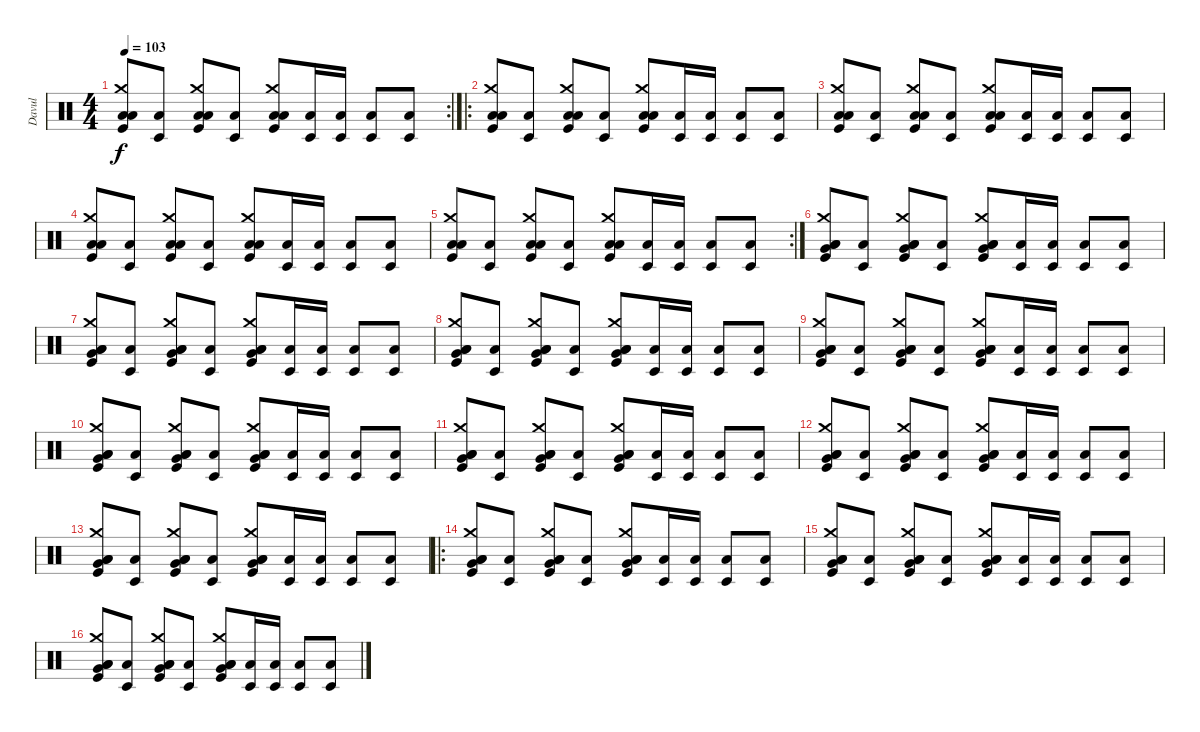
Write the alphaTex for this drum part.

\track ("Davul" "Davul") {instrument percussion}
\staff {score}
\articulation defaults
\rc 2
\ts (4 4)
\tempo 103
\clef neutral
\ks c
("Kick (hit)" "Low Tom (hit)" "Low Floor Tom (hit)" "Crash medium (hit)").8{dy f} ("Timbale low (hit)" "Low Floor Tom (hit)").8 ("Kick (hit)" "Low Tom (hit)" "Low Floor Tom (hit)" "Crash medium (hit)").8 ("Timbale low (hit)" "Low Floor Tom (hit)").8 ("Kick (hit)" "Low Tom (hit)" "Low Floor Tom (hit)" "Crash medium (hit)").8 ("Timbale low (hit)" "Low Floor Tom (hit)").16 ("Timbale low (hit)" "Low Floor Tom (hit)").16 ("Timbale low (hit)" "Low Floor Tom (hit)").8 ("Timbale low (hit)" "Low Floor Tom (hit)").8 |
\ro
("Kick (hit)" "Low Tom (hit)" "Low Floor Tom (hit)" "Crash medium (hit)").8 ("Timbale low (hit)" "Low Floor Tom (hit)").8 ("Kick (hit)" "Low Tom (hit)" "Low Floor Tom (hit)" "Crash medium (hit)").8 ("Timbale low (hit)" "Low Floor Tom (hit)").8 ("Kick (hit)" "Low Tom (hit)" "Low Floor Tom (hit)" "Crash medium (hit)").8 ("Timbale low (hit)" "Low Floor Tom (hit)").16 ("Timbale low (hit)" "Low Floor Tom (hit)").16 ("Timbale low (hit)" "Low Floor Tom (hit)").8 ("Timbale low (hit)" "Low Floor Tom (hit)").8 |
("Kick (hit)" "Low Tom (hit)" "Low Floor Tom (hit)" "Crash medium (hit)").8 ("Timbale low (hit)" "Low Floor Tom (hit)").8 ("Kick (hit)" "Low Tom (hit)" "Low Floor Tom (hit)" "Crash medium (hit)").8 ("Timbale low (hit)" "Low Floor Tom (hit)").8 ("Kick (hit)" "Low Tom (hit)" "Low Floor Tom (hit)" "Crash medium (hit)").8 ("Timbale low (hit)" "Low Floor Tom (hit)").16 ("Timbale low (hit)" "Low Floor Tom (hit)").16 ("Timbale low (hit)" "Low Floor Tom (hit)").8 ("Timbale low (hit)" "Low Floor Tom (hit)").8 |
("Kick (hit)" "Low Tom (hit)" "Low Floor Tom (hit)" "Crash medium (hit)").8 ("Timbale low (hit)" "Low Floor Tom (hit)").8 ("Kick (hit)" "Low Tom (hit)" "Low Floor Tom (hit)" "Crash medium (hit)").8 ("Timbale low (hit)" "Low Floor Tom (hit)").8 ("Kick (hit)" "Low Tom (hit)" "Low Floor Tom (hit)" "Crash medium (hit)").8 ("Timbale low (hit)" "Low Floor Tom (hit)").16 ("Timbale low (hit)" "Low Floor Tom (hit)").16 ("Timbale low (hit)" "Low Floor Tom (hit)").8 ("Timbale low (hit)" "Low Floor Tom (hit)").8 |
\rc 2
("Kick (hit)" "Low Tom (hit)" "Low Floor Tom (hit)" "Crash medium (hit)").8 ("Timbale low (hit)" "Low Floor Tom (hit)").8 ("Kick (hit)" "Low Tom (hit)" "Low Floor Tom (hit)" "Crash medium (hit)").8 ("Timbale low (hit)" "Low Floor Tom (hit)").8 ("Kick (hit)" "Low Tom (hit)" "Low Floor Tom (hit)" "Crash medium (hit)").8 ("Timbale low (hit)" "Low Floor Tom (hit)").16 ("Timbale low (hit)" "Low Floor Tom (hit)").16 ("Timbale low (hit)" "Low Floor Tom (hit)").8 ("Timbale low (hit)" "Low Floor Tom (hit)").8 |
("Kick (hit)" "Low Tom (hit)" "Low Floor Tom (hit)" "Very Low Tom (hit)" "Crash medium (hit)").8 ("Timbale low (hit)" "Low Floor Tom (hit)").8 ("Kick (hit)" "Low Tom (hit)" "Low Floor Tom (hit)" "Very Low Tom (hit)" "Crash medium (hit)").8 ("Timbale low (hit)" "Low Floor Tom (hit)").8 ("Kick (hit)" "Low Tom (hit)" "Low Floor Tom (hit)" "Very Low Tom (hit)" "Crash medium (hit)").8 ("Timbale low (hit)" "Low Floor Tom (hit)").16 ("Timbale low (hit)" "Low Floor Tom (hit)").16 ("Timbale low (hit)" "Low Floor Tom (hit)").8 ("Timbale low (hit)" "Low Floor Tom (hit)").8 |
("Kick (hit)" "Low Tom (hit)" "Low Floor Tom (hit)" "Very Low Tom (hit)" "Crash medium (hit)").8 ("Timbale low (hit)" "Low Floor Tom (hit)").8 ("Kick (hit)" "Low Tom (hit)" "Low Floor Tom (hit)" "Very Low Tom (hit)" "Crash medium (hit)").8 ("Timbale low (hit)" "Low Floor Tom (hit)").8 ("Kick (hit)" "Low Tom (hit)" "Low Floor Tom (hit)" "Very Low Tom (hit)" "Crash medium (hit)").8 ("Timbale low (hit)" "Low Floor Tom (hit)").16 ("Timbale low (hit)" "Low Floor Tom (hit)").16 ("Timbale low (hit)" "Low Floor Tom (hit)").8 ("Timbale low (hit)" "Low Floor Tom (hit)").8 |
("Kick (hit)" "Low Tom (hit)" "Low Floor Tom (hit)" "Very Low Tom (hit)" "Crash medium (hit)").8 ("Timbale low (hit)" "Low Floor Tom (hit)").8 ("Kick (hit)" "Low Tom (hit)" "Low Floor Tom (hit)" "Very Low Tom (hit)" "Crash medium (hit)").8 ("Timbale low (hit)" "Low Floor Tom (hit)").8 ("Kick (hit)" "Low Tom (hit)" "Low Floor Tom (hit)" "Very Low Tom (hit)" "Crash medium (hit)").8 ("Timbale low (hit)" "Low Floor Tom (hit)").16 ("Timbale low (hit)" "Low Floor Tom (hit)").16 ("Timbale low (hit)" "Low Floor Tom (hit)").8 ("Timbale low (hit)" "Low Floor Tom (hit)").8 |
("Kick (hit)" "Low Tom (hit)" "Low Floor Tom (hit)" "Very Low Tom (hit)" "Crash medium (hit)").8 ("Timbale low (hit)" "Low Floor Tom (hit)").8 ("Kick (hit)" "Low Tom (hit)" "Low Floor Tom (hit)" "Very Low Tom (hit)" "Crash medium (hit)").8 ("Timbale low (hit)" "Low Floor Tom (hit)").8 ("Kick (hit)" "Low Tom (hit)" "Low Floor Tom (hit)" "Very Low Tom (hit)" "Crash medium (hit)").8 ("Timbale low (hit)" "Low Floor Tom (hit)").16 ("Timbale low (hit)" "Low Floor Tom (hit)").16 ("Timbale low (hit)" "Low Floor Tom (hit)").8 ("Timbale low (hit)" "Low Floor Tom (hit)").8 |
("Kick (hit)" "Low Tom (hit)" "Low Floor Tom (hit)" "Very Low Tom (hit)" "Crash medium (hit)").8 ("Timbale low (hit)" "Low Floor Tom (hit)").8 ("Kick (hit)" "Low Tom (hit)" "Low Floor Tom (hit)" "Very Low Tom (hit)" "Crash medium (hit)").8 ("Timbale low (hit)" "Low Floor Tom (hit)").8 ("Kick (hit)" "Low Tom (hit)" "Low Floor Tom (hit)" "Very Low Tom (hit)" "Crash medium (hit)").8 ("Timbale low (hit)" "Low Floor Tom (hit)").16 ("Timbale low (hit)" "Low Floor Tom (hit)").16 ("Timbale low (hit)" "Low Floor Tom (hit)").8 ("Timbale low (hit)" "Low Floor Tom (hit)").8 |
("Kick (hit)" "Low Tom (hit)" "Low Floor Tom (hit)" "Very Low Tom (hit)" "Crash medium (hit)").8 ("Timbale low (hit)" "Low Floor Tom (hit)").8 ("Kick (hit)" "Low Tom (hit)" "Low Floor Tom (hit)" "Very Low Tom (hit)" "Crash medium (hit)").8 ("Timbale low (hit)" "Low Floor Tom (hit)").8 ("Kick (hit)" "Low Tom (hit)" "Low Floor Tom (hit)" "Very Low Tom (hit)" "Crash medium (hit)").8 ("Timbale low (hit)" "Low Floor Tom (hit)").16 ("Timbale low (hit)" "Low Floor Tom (hit)").16 ("Timbale low (hit)" "Low Floor Tom (hit)").8 ("Timbale low (hit)" "Low Floor Tom (hit)").8 |
("Kick (hit)" "Low Tom (hit)" "Low Floor Tom (hit)" "Very Low Tom (hit)" "Crash medium (hit)").8 ("Timbale low (hit)" "Low Floor Tom (hit)").8 ("Kick (hit)" "Low Tom (hit)" "Low Floor Tom (hit)" "Very Low Tom (hit)" "Crash medium (hit)").8 ("Timbale low (hit)" "Low Floor Tom (hit)").8 ("Kick (hit)" "Low Tom (hit)" "Low Floor Tom (hit)" "Very Low Tom (hit)" "Crash medium (hit)").8 ("Timbale low (hit)" "Low Floor Tom (hit)").16 ("Timbale low (hit)" "Low Floor Tom (hit)").16 ("Timbale low (hit)" "Low Floor Tom (hit)").8 ("Timbale low (hit)" "Low Floor Tom (hit)").8 |
("Kick (hit)" "Low Tom (hit)" "Low Floor Tom (hit)" "Very Low Tom (hit)" "Crash medium (hit)").8 ("Timbale low (hit)" "Low Floor Tom (hit)").8 ("Kick (hit)" "Low Tom (hit)" "Low Floor Tom (hit)" "Very Low Tom (hit)" "Crash medium (hit)").8 ("Timbale low (hit)" "Low Floor Tom (hit)").8 ("Kick (hit)" "Low Tom (hit)" "Low Floor Tom (hit)" "Very Low Tom (hit)" "Crash medium (hit)").8 ("Timbale low (hit)" "Low Floor Tom (hit)").16 ("Timbale low (hit)" "Low Floor Tom (hit)").16 ("Timbale low (hit)" "Low Floor Tom (hit)").8 ("Timbale low (hit)" "Low Floor Tom (hit)").8 |
\ro
("Kick (hit)" "Low Tom (hit)" "Low Floor Tom (hit)" "Very Low Tom (hit)" "Crash medium (hit)").8 ("Timbale low (hit)" "Low Floor Tom (hit)").8 ("Kick (hit)" "Low Tom (hit)" "Low Floor Tom (hit)" "Very Low Tom (hit)" "Crash medium (hit)").8 ("Timbale low (hit)" "Low Floor Tom (hit)").8 ("Kick (hit)" "Low Tom (hit)" "Low Floor Tom (hit)" "Very Low Tom (hit)" "Crash medium (hit)").8 ("Timbale low (hit)" "Low Floor Tom (hit)").16 ("Timbale low (hit)" "Low Floor Tom (hit)").16 ("Timbale low (hit)" "Low Floor Tom (hit)").8 ("Timbale low (hit)" "Low Floor Tom (hit)").8 |
("Kick (hit)" "Low Tom (hit)" "Low Floor Tom (hit)" "Very Low Tom (hit)" "Crash medium (hit)").8 ("Timbale low (hit)" "Low Floor Tom (hit)").8 ("Kick (hit)" "Low Tom (hit)" "Low Floor Tom (hit)" "Very Low Tom (hit)" "Crash medium (hit)").8 ("Timbale low (hit)" "Low Floor Tom (hit)").8 ("Kick (hit)" "Low Tom (hit)" "Low Floor Tom (hit)" "Very Low Tom (hit)" "Crash medium (hit)").8 ("Timbale low (hit)" "Low Floor Tom (hit)").16 ("Timbale low (hit)" "Low Floor Tom (hit)").16 ("Timbale low (hit)" "Low Floor Tom (hit)").8 ("Timbale low (hit)" "Low Floor Tom (hit)").8 |
("Kick (hit)" "Low Tom (hit)" "Low Floor Tom (hit)" "Very Low Tom (hit)" "Crash medium (hit)").8 ("Timbale low (hit)" "Low Floor Tom (hit)").8 ("Kick (hit)" "Low Tom (hit)" "Low Floor Tom (hit)" "Very Low Tom (hit)" "Crash medium (hit)").8 ("Timbale low (hit)" "Low Floor Tom (hit)").8 ("Kick (hit)" "Low Tom (hit)" "Low Floor Tom (hit)" "Very Low Tom (hit)" "Crash medium (hit)").8 ("Timbale low (hit)" "Low Floor Tom (hit)").16 ("Timbale low (hit)" "Low Floor Tom (hit)").16 ("Timbale low (hit)" "Low Floor Tom (hit)").8 ("Timbale low (hit)" "Low Floor Tom (hit)").8
